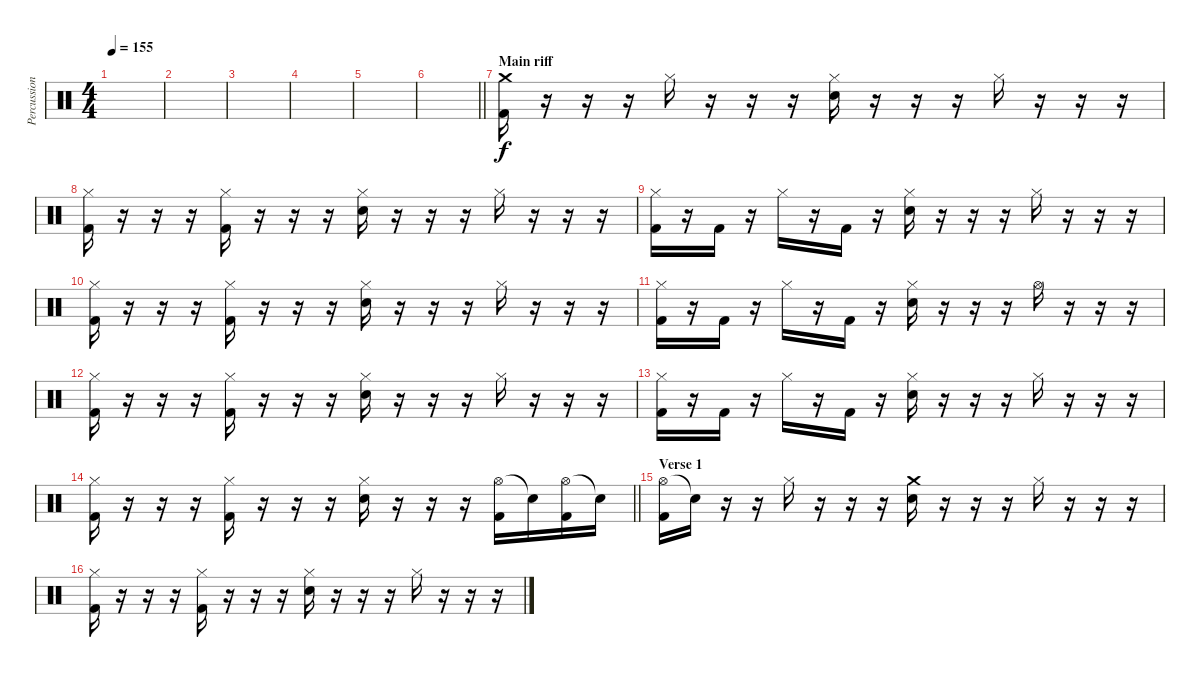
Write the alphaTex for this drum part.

\track ("Percussion" "Percussion") {instrument percussion}
\staff {score}
\articulation defaults
\ts (4 4)
\tempo 155
\clef neutral
\ks c
|
|
|
|
|
\barLineRight lightlight
|
\section ("" "Main riff")
("Crash medium (hit)" "Kick (hit) 2").16 r.16 r.16 r.16 "Hi-Hat (closed)".16 r.16 r.16 r.16 ("Hi-Hat (closed)" "Electric Snare (hit)").16 r.16 r.16 r.16 "Hi-Hat (closed)".16 r.16 r.16 r.16 |
("Hi-Hat (closed)" "Kick (hit) 2").16 r.16 r.16 r.16 ("Hi-Hat (closed)" "Kick (hit) 2").16 r.16 r.16 r.16 ("Hi-Hat (closed)" "Electric Snare (hit)").16 r.16 r.16 r.16 "Hi-Hat (closed)".16 r.16 r.16 r.16 |
("Hi-Hat (closed)" "Kick (hit) 2").16 r.16 "Kick (hit) 2".16 r.16 "Hi-Hat (closed)".16 r.16 "Kick (hit) 2".16 r.16 ("Hi-Hat (closed)" "Electric Snare (hit)").16 r.16 r.16 r.16 "Hi-Hat (closed)".16 r.16 r.16 r.16 |
("Hi-Hat (closed)" "Kick (hit) 2").16 r.16 r.16 r.16 ("Hi-Hat (closed)" "Kick (hit) 2").16 r.16 r.16 r.16 ("Hi-Hat (closed)" "Electric Snare (hit)").16 r.16 r.16 r.16 "Hi-Hat (closed)".16 r.16 r.16 r.16 |
("Hi-Hat (closed)" "Kick (hit) 2").16 r.16 "Kick (hit) 2".16 r.16 "Hi-Hat (closed)".16 r.16 "Kick (hit) 2".16 r.16 ("Hi-Hat (closed)" "Electric Snare (hit)").16 r.16 r.16 r.16 "Hi-Hat (open)".16 r.16 r.16 r.16 |
("Hi-Hat (closed)" "Kick (hit) 2").16 r.16 r.16 r.16 ("Hi-Hat (closed)" "Kick (hit) 2").16 r.16 r.16 r.16 ("Hi-Hat (closed)" "Electric Snare (hit)").16 r.16 r.16 r.16 "Hi-Hat (closed)".16 r.16 r.16 r.16 |
("Hi-Hat (closed)" "Kick (hit) 2").16 r.16 "Kick (hit) 2".16 r.16 "Hi-Hat (closed)".16 r.16 "Kick (hit) 2".16 r.16 ("Hi-Hat (closed)" "Electric Snare (hit)").16 r.16 r.16 r.16 "Hi-Hat (closed)".16 r.16 r.16 r.16 |
\barLineRight lightlight
("Hi-Hat (closed)" "Kick (hit) 2").16 r.16 r.16 r.16 ("Hi-Hat (closed)" "Kick (hit) 2").16 r.16 r.16 r.16 ("Hi-Hat (closed)" "Electric Snare (hit)").16 r.16 r.16 r.16 ("Hi-Hat (open)" "Kick (hit) 2").16 "Snare (hit)"{t}.16 ("Hi-Hat (open)" "Kick (hit) 2").16 "Snare (hit)"{t}.16 |
\section ("" "Verse 1")
("Hi-Hat (open)" "Kick (hit) 2").16 "Snare (hit)"{t}.16 r.16 r.16 "Hi-Hat (closed)".16 r.16 r.16 r.16 ("Crash medium (hit)" "Electric Snare (hit)").16 r.16 r.16 r.16 "Hi-Hat (closed)".16 r.16 r.16 r.16 |
("Hi-Hat (closed)" "Kick (hit) 2").16 r.16 r.16 r.16 ("Hi-Hat (closed)" "Kick (hit) 2").16 r.16 r.16 r.16 ("Hi-Hat (closed)" "Electric Snare (hit)").16 r.16 r.16 r.16 "Hi-Hat (closed)".16 r.16 r.16 r.16
